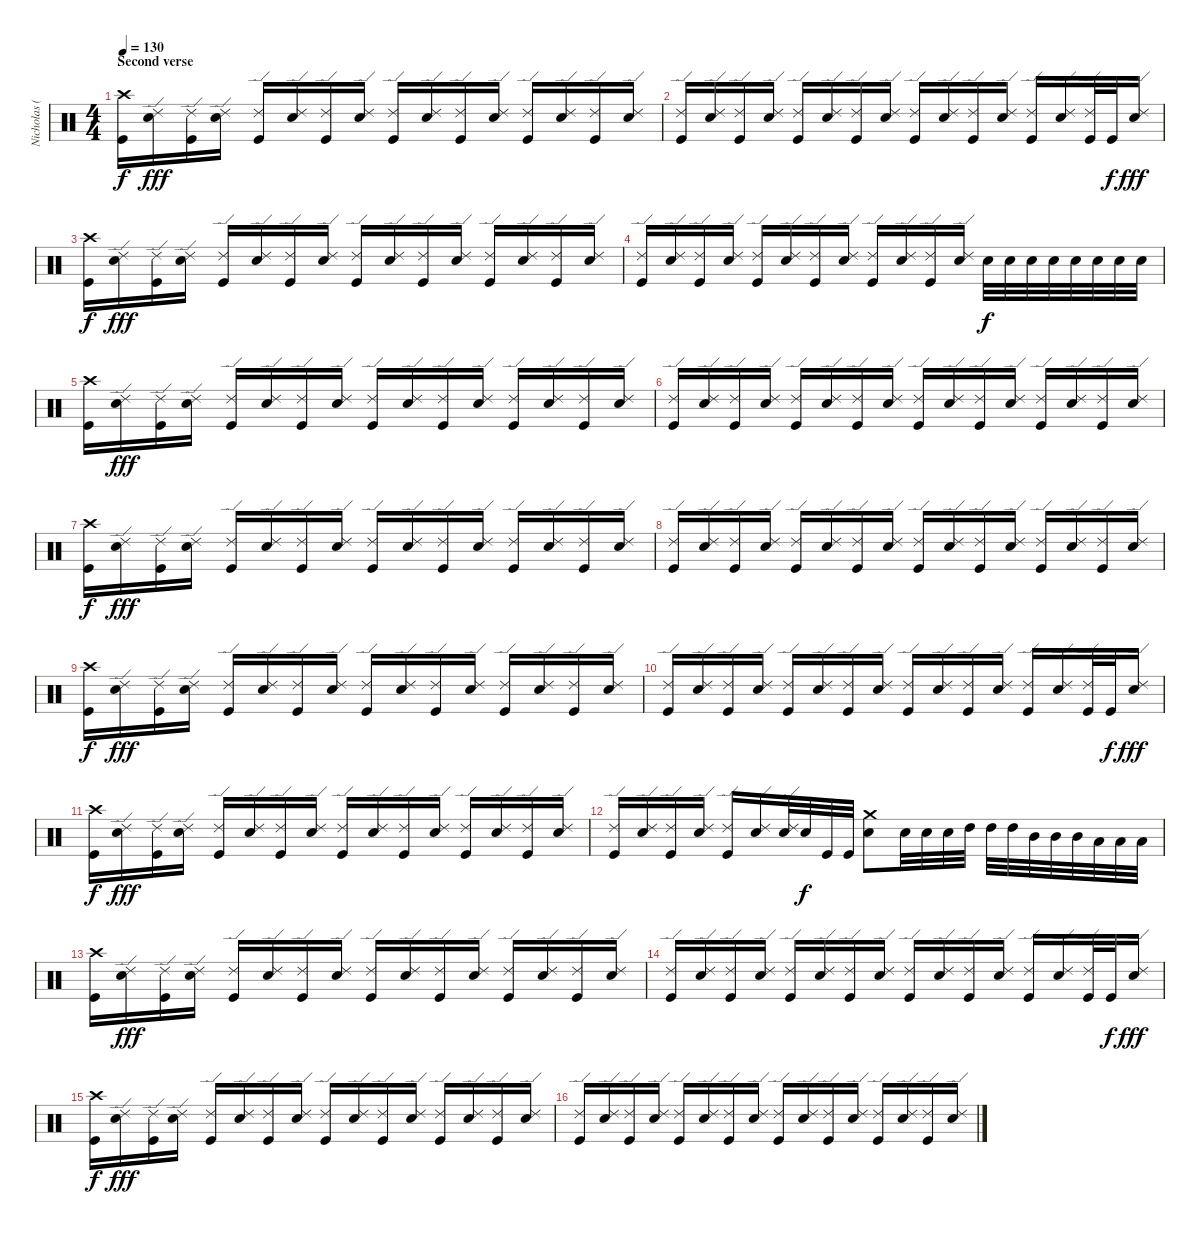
\track ("Nicholas (Drums)" "Nicholas (") {instrument percussion}
\staff {score}
\articulation defaults
\ts (4 4)
\section ("" "Second verse")
\tempo 130
\clef neutral
\ks c
("Crash high (hit)" "Kick (hit)").16{dy f} ("Ride (edge) 2" "Electric Snare (hit)").16{dy fff} ("Ride (edge) 2" "Kick (hit)").16 ("Ride (edge) 2" "Electric Snare (hit)").16 ("Ride (edge) 2" "Kick (hit)").16 ("Ride (edge) 2" "Electric Snare (hit)").16 ("Ride (edge) 2" "Kick (hit)").16 ("Ride (edge) 2" "Electric Snare (hit)").16 ("Ride (edge) 2" "Kick (hit)").16 ("Ride (edge) 2" "Electric Snare (hit)").16 ("Ride (edge) 2" "Kick (hit)").16 ("Ride (edge) 2" "Electric Snare (hit)").16 ("Ride (edge) 2" "Kick (hit)").16 ("Ride (edge) 2" "Electric Snare (hit)").16 ("Ride (edge) 2" "Kick (hit)").16 ("Ride (edge) 2" "Electric Snare (hit)").16 |
("Ride (edge) 2" "Kick (hit)").16 ("Ride (edge) 2" "Electric Snare (hit)").16 ("Ride (edge) 2" "Kick (hit)").16 ("Ride (edge) 2" "Electric Snare (hit)").16 ("Ride (edge) 2" "Kick (hit)").16 ("Ride (edge) 2" "Electric Snare (hit)").16 ("Ride (edge) 2" "Kick (hit)").16 ("Ride (edge) 2" "Electric Snare (hit)").16 ("Ride (edge) 2" "Kick (hit)").16 ("Ride (edge) 2" "Electric Snare (hit)").16 ("Ride (edge) 2" "Kick (hit)").16 ("Ride (edge) 2" "Electric Snare (hit)").16 ("Ride (edge) 2" "Kick (hit)").16 ("Ride (edge) 2" "Electric Snare (hit)").16 ("Ride (edge) 2" "Kick (hit)").32 "Kick (hit)".32{dy f} ("Ride (edge) 2" "Electric Snare (hit)").16{dy fff} |
("Crash high (hit)" "Kick (hit)").16{dy f} ("Ride (edge) 2" "Electric Snare (hit)").16{dy fff} ("Ride (edge) 2" "Kick (hit)").16 ("Ride (edge) 2" "Electric Snare (hit)").16 ("Ride (edge) 2" "Kick (hit)").16 ("Ride (edge) 2" "Electric Snare (hit)").16 ("Ride (edge) 2" "Kick (hit)").16 ("Ride (edge) 2" "Electric Snare (hit)").16 ("Ride (edge) 2" "Kick (hit)").16 ("Ride (edge) 2" "Electric Snare (hit)").16 ("Ride (edge) 2" "Kick (hit)").16 ("Ride (edge) 2" "Electric Snare (hit)").16 ("Ride (edge) 2" "Kick (hit)").16 ("Ride (edge) 2" "Electric Snare (hit)").16 ("Ride (edge) 2" "Kick (hit)").16 ("Ride (edge) 2" "Electric Snare (hit)").16 |
("Ride (edge) 2" "Kick (hit)").16 ("Ride (edge) 2" "Electric Snare (hit)").16 ("Ride (edge) 2" "Kick (hit)").16 ("Ride (edge) 2" "Electric Snare (hit)").16 ("Ride (edge) 2" "Kick (hit)").16 ("Ride (edge) 2" "Electric Snare (hit)").16 ("Ride (edge) 2" "Kick (hit)").16 ("Ride (edge) 2" "Electric Snare (hit)").16 ("Ride (edge) 2" "Kick (hit)").16 ("Ride (edge) 2" "Electric Snare (hit)").16 ("Ride (edge) 2" "Kick (hit)").16 ("Ride (edge) 2" "Electric Snare (hit)").16 "Electric Snare (hit)".32{dy f} "Electric Snare (hit)".32 "Electric Snare (hit)".32 "Electric Snare (hit)".32 "Electric Snare (hit)".32 "Electric Snare (hit)".32 "Electric Snare (hit)".32 "Electric Snare (hit)".32 |
("Crash high (hit)" "Kick (hit)").16 ("Ride (edge) 2" "Electric Snare (hit)").16{dy fff} ("Ride (edge) 2" "Kick (hit)").16 ("Ride (edge) 2" "Electric Snare (hit)").16 ("Ride (edge) 2" "Kick (hit)").16 ("Ride (edge) 2" "Electric Snare (hit)").16 ("Ride (edge) 2" "Kick (hit)").16 ("Ride (edge) 2" "Electric Snare (hit)").16 ("Ride (edge) 2" "Kick (hit)").16 ("Ride (edge) 2" "Electric Snare (hit)").16 ("Ride (edge) 2" "Kick (hit)").16 ("Ride (edge) 2" "Electric Snare (hit)").16 ("Ride (edge) 2" "Kick (hit)").16 ("Ride (edge) 2" "Electric Snare (hit)").16 ("Ride (edge) 2" "Kick (hit)").16 ("Ride (edge) 2" "Electric Snare (hit)").16 |
("Ride (edge) 2" "Kick (hit)").16 ("Ride (edge) 2" "Electric Snare (hit)").16 ("Ride (edge) 2" "Kick (hit)").16 ("Ride (edge) 2" "Electric Snare (hit)").16 ("Ride (edge) 2" "Kick (hit)").16 ("Ride (edge) 2" "Electric Snare (hit)").16 ("Ride (edge) 2" "Kick (hit)").16 ("Ride (edge) 2" "Electric Snare (hit)").16 ("Ride (edge) 2" "Kick (hit)").16 ("Ride (edge) 2" "Electric Snare (hit)").16 ("Ride (edge) 2" "Kick (hit)").16 ("Ride (edge) 2" "Electric Snare (hit)").16 ("Ride (edge) 2" "Kick (hit)").16 ("Ride (edge) 2" "Electric Snare (hit)").16 ("Ride (edge) 2" "Kick (hit)").16 ("Ride (edge) 2" "Electric Snare (hit)").16 |
("Crash high (hit)" "Kick (hit)").16{dy f} ("Ride (edge) 2" "Electric Snare (hit)").16{dy fff} ("Ride (edge) 2" "Kick (hit)").16 ("Ride (edge) 2" "Electric Snare (hit)").16 ("Ride (edge) 2" "Kick (hit)").16 ("Ride (edge) 2" "Electric Snare (hit)").16 ("Ride (edge) 2" "Kick (hit)").16 ("Ride (edge) 2" "Electric Snare (hit)").16 ("Ride (edge) 2" "Kick (hit)").16 ("Ride (edge) 2" "Electric Snare (hit)").16 ("Ride (edge) 2" "Kick (hit)").16 ("Ride (edge) 2" "Electric Snare (hit)").16 ("Ride (edge) 2" "Kick (hit)").16 ("Ride (edge) 2" "Electric Snare (hit)").16 ("Ride (edge) 2" "Kick (hit)").16 ("Ride (edge) 2" "Electric Snare (hit)").16 |
("Ride (edge) 2" "Kick (hit)").16 ("Ride (edge) 2" "Electric Snare (hit)").16 ("Ride (edge) 2" "Kick (hit)").16 ("Ride (edge) 2" "Electric Snare (hit)").16 ("Ride (edge) 2" "Kick (hit)").16 ("Ride (edge) 2" "Electric Snare (hit)").16 ("Ride (edge) 2" "Kick (hit)").16 ("Ride (edge) 2" "Electric Snare (hit)").16 ("Ride (edge) 2" "Kick (hit)").16 ("Ride (edge) 2" "Electric Snare (hit)").16 ("Ride (edge) 2" "Kick (hit)").16 ("Ride (edge) 2" "Electric Snare (hit)").16 ("Ride (edge) 2" "Kick (hit)").16 ("Ride (edge) 2" "Electric Snare (hit)").16 ("Ride (edge) 2" "Kick (hit)").16 ("Ride (edge) 2" "Electric Snare (hit)").16 |
("Crash high (hit)" "Kick (hit)").16{dy f} ("Ride (edge) 2" "Electric Snare (hit)").16{dy fff} ("Ride (edge) 2" "Kick (hit)").16 ("Ride (edge) 2" "Electric Snare (hit)").16 ("Ride (edge) 2" "Kick (hit)").16 ("Ride (edge) 2" "Electric Snare (hit)").16 ("Ride (edge) 2" "Kick (hit)").16 ("Ride (edge) 2" "Electric Snare (hit)").16 ("Ride (edge) 2" "Kick (hit)").16 ("Ride (edge) 2" "Electric Snare (hit)").16 ("Ride (edge) 2" "Kick (hit)").16 ("Ride (edge) 2" "Electric Snare (hit)").16 ("Ride (edge) 2" "Kick (hit)").16 ("Ride (edge) 2" "Electric Snare (hit)").16 ("Ride (edge) 2" "Kick (hit)").16 ("Ride (edge) 2" "Electric Snare (hit)").16 |
("Ride (edge) 2" "Kick (hit)").16 ("Ride (edge) 2" "Electric Snare (hit)").16 ("Ride (edge) 2" "Kick (hit)").16 ("Ride (edge) 2" "Electric Snare (hit)").16 ("Ride (edge) 2" "Kick (hit)").16 ("Ride (edge) 2" "Electric Snare (hit)").16 ("Ride (edge) 2" "Kick (hit)").16 ("Ride (edge) 2" "Electric Snare (hit)").16 ("Ride (edge) 2" "Kick (hit)").16 ("Ride (edge) 2" "Electric Snare (hit)").16 ("Ride (edge) 2" "Kick (hit)").16 ("Ride (edge) 2" "Electric Snare (hit)").16 ("Ride (edge) 2" "Kick (hit)").16 ("Ride (edge) 2" "Electric Snare (hit)").16 ("Ride (edge) 2" "Kick (hit)").32 "Kick (hit)".32{dy f} ("Ride (edge) 2" "Electric Snare (hit)").16{dy fff} |
("Crash high (hit)" "Kick (hit)").16{dy f} ("Ride (edge) 2" "Electric Snare (hit)").16{dy fff} ("Ride (edge) 2" "Kick (hit)").16 ("Ride (edge) 2" "Electric Snare (hit)").16 ("Ride (edge) 2" "Kick (hit)").16 ("Ride (edge) 2" "Electric Snare (hit)").16 ("Ride (edge) 2" "Kick (hit)").16 ("Ride (edge) 2" "Electric Snare (hit)").16 ("Ride (edge) 2" "Kick (hit)").16 ("Ride (edge) 2" "Electric Snare (hit)").16 ("Ride (edge) 2" "Kick (hit)").16 ("Ride (edge) 2" "Electric Snare (hit)").16 ("Ride (edge) 2" "Kick (hit)").16 ("Ride (edge) 2" "Electric Snare (hit)").16 ("Ride (edge) 2" "Kick (hit)").16 ("Ride (edge) 2" "Electric Snare (hit)").16 |
("Ride (edge) 2" "Kick (hit)").16 ("Ride (edge) 2" "Electric Snare (hit)").16 ("Ride (edge) 2" "Kick (hit)").16 ("Ride (edge) 2" "Electric Snare (hit)").16 ("Ride (edge) 2" "Kick (hit)").16 ("Ride (edge) 2" "Electric Snare (hit)").16 ("Ride (edge) 2" "Electric Snare (hit)").32 "Electric Snare (hit)".32{dy f} "Kick (hit)".32 "Kick (hit)".32 ("Crash medium (hit)" "Electric Snare (hit)").8 "Electric Snare (hit)".32 "Electric Snare (hit)".32 "Electric Snare (hit)".32 "High Tom (hit)".32 "High Tom (hit)".32 "High Tom (hit)".32 "Mid Tom (hit)".32 "Mid Tom (hit)".32 "Mid Tom (hit)".32 "Low Tom (hit)".32 "Low Tom (hit)".32 "Low Tom (hit)".32 |
("Crash high (hit)" "Kick (hit)").16 ("Ride (edge) 2" "Electric Snare (hit)").16{dy fff} ("Ride (edge) 2" "Kick (hit)").16 ("Ride (edge) 2" "Electric Snare (hit)").16 ("Ride (edge) 2" "Kick (hit)").16 ("Ride (edge) 2" "Electric Snare (hit)").16 ("Ride (edge) 2" "Kick (hit)").16 ("Ride (edge) 2" "Electric Snare (hit)").16 ("Ride (edge) 2" "Kick (hit)").16 ("Ride (edge) 2" "Electric Snare (hit)").16 ("Ride (edge) 2" "Kick (hit)").16 ("Ride (edge) 2" "Electric Snare (hit)").16 ("Ride (edge) 2" "Kick (hit)").16 ("Ride (edge) 2" "Electric Snare (hit)").16 ("Ride (edge) 2" "Kick (hit)").16 ("Ride (edge) 2" "Electric Snare (hit)").16 |
("Ride (edge) 2" "Kick (hit)").16 ("Ride (edge) 2" "Electric Snare (hit)").16 ("Ride (edge) 2" "Kick (hit)").16 ("Ride (edge) 2" "Electric Snare (hit)").16 ("Ride (edge) 2" "Kick (hit)").16 ("Ride (edge) 2" "Electric Snare (hit)").16 ("Ride (edge) 2" "Kick (hit)").16 ("Ride (edge) 2" "Electric Snare (hit)").16 ("Ride (edge) 2" "Kick (hit)").16 ("Ride (edge) 2" "Electric Snare (hit)").16 ("Ride (edge) 2" "Kick (hit)").16 ("Ride (edge) 2" "Electric Snare (hit)").16 ("Ride (edge) 2" "Kick (hit)").16 ("Ride (edge) 2" "Electric Snare (hit)").16 ("Ride (edge) 2" "Kick (hit)").32 "Kick (hit)".32{dy f} ("Ride (edge) 2" "Electric Snare (hit)").16{dy fff} |
("Crash high (hit)" "Kick (hit)").16{dy f} ("Ride (edge) 2" "Electric Snare (hit)").16{dy fff} ("Ride (edge) 2" "Kick (hit)").16 ("Ride (edge) 2" "Electric Snare (hit)").16 ("Ride (edge) 2" "Kick (hit)").16 ("Ride (edge) 2" "Electric Snare (hit)").16 ("Ride (edge) 2" "Kick (hit)").16 ("Ride (edge) 2" "Electric Snare (hit)").16 ("Ride (edge) 2" "Kick (hit)").16 ("Ride (edge) 2" "Electric Snare (hit)").16 ("Ride (edge) 2" "Kick (hit)").16 ("Ride (edge) 2" "Electric Snare (hit)").16 ("Ride (edge) 2" "Kick (hit)").16 ("Ride (edge) 2" "Electric Snare (hit)").16 ("Ride (edge) 2" "Kick (hit)").16 ("Ride (edge) 2" "Electric Snare (hit)").16 |
("Ride (edge) 2" "Kick (hit)").16 ("Ride (edge) 2" "Electric Snare (hit)").16 ("Ride (edge) 2" "Kick (hit)").16 ("Ride (edge) 2" "Electric Snare (hit)").16 ("Ride (edge) 2" "Kick (hit)").16 ("Ride (edge) 2" "Electric Snare (hit)").16 ("Ride (edge) 2" "Kick (hit)").16 ("Ride (edge) 2" "Electric Snare (hit)").16 ("Ride (edge) 2" "Kick (hit)").16 ("Ride (edge) 2" "Electric Snare (hit)").16 ("Ride (edge) 2" "Kick (hit)").16 ("Ride (edge) 2" "Electric Snare (hit)").16 ("Ride (edge) 2" "Kick (hit)").16 ("Ride (edge) 2" "Electric Snare (hit)").16 ("Ride (edge) 2" "Kick (hit)").16 ("Ride (edge) 2" "Electric Snare (hit)").16
